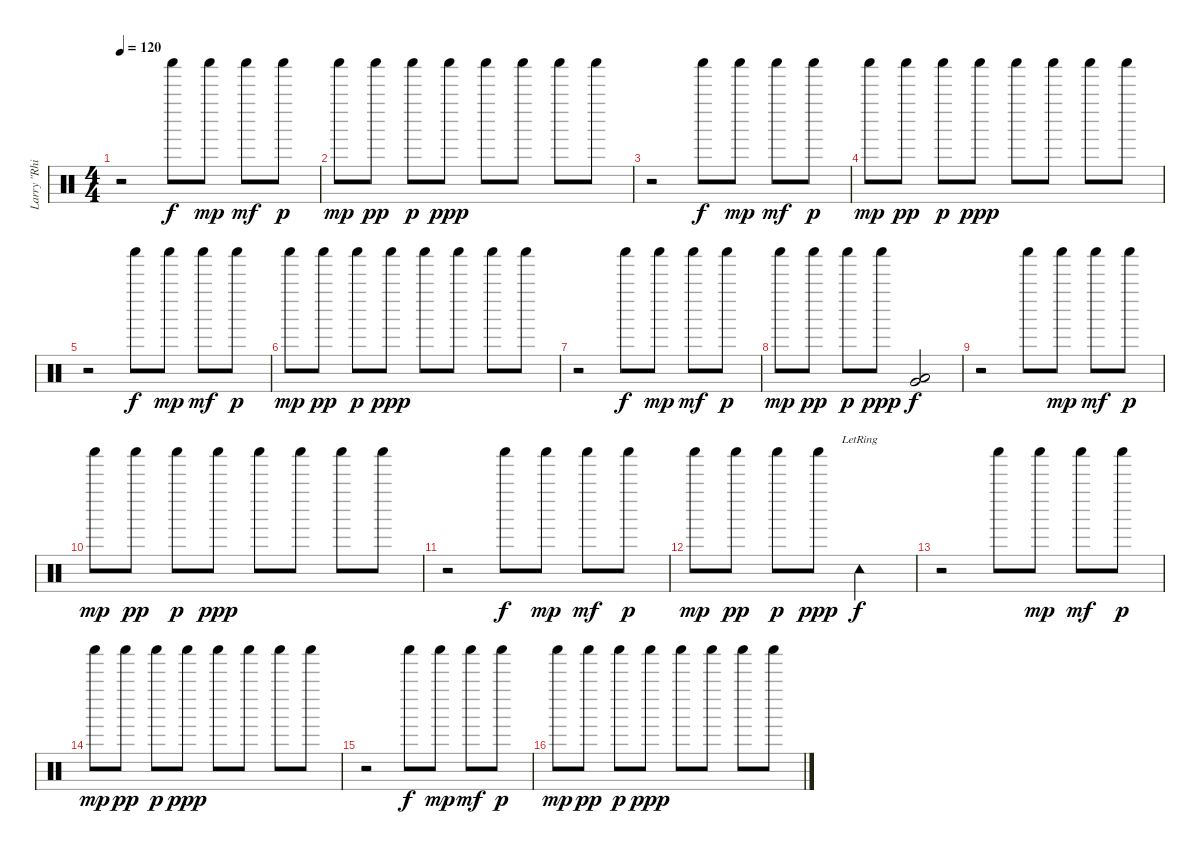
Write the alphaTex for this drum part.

\track ("Larry \"Rhino\" Rheinhart" "Larry \"Rhi") {instrument percussion}
\staff {score}
\articulation defaults
\ts (4 4)
\tempo 120
\clef neutral
\ks c
r.2{dy f} "Shaker (hit)".8{balance 0} "Shaker (hit)".8{dy mp balance 16} "Shaker (hit)".8{dy mf balance 0} "Shaker (hit)".8{dy p balance 16} |
"Shaker (hit)".8{dy mp balance 0} "Shaker (hit)".8{dy pp balance 16} "Shaker (hit)".8{dy p balance 0} "Shaker (hit)".8{dy ppp balance 16} "Shaker (hit)".8{balance 0} "Shaker (hit)".8{balance 0} "Shaker (hit)".8{balance 0} "Shaker (hit)".8 |
r.2 "Shaker (hit)".8{dy f balance 0} "Shaker (hit)".8{dy mp balance 16} "Shaker (hit)".8{dy mf balance 0} "Shaker (hit)".8{dy p balance 16} |
"Shaker (hit)".8{dy mp balance 0} "Shaker (hit)".8{dy pp balance 16} "Shaker (hit)".8{dy p balance 0} "Shaker (hit)".8{dy ppp balance 16} "Shaker (hit)".8{balance 0} "Shaker (hit)".8{balance 0} "Shaker (hit)".8{balance 0} "Shaker (hit)".8 |
r.2 "Shaker (hit)".8{dy f balance 0} "Shaker (hit)".8{dy mp balance 16} "Shaker (hit)".8{dy mf balance 0} "Shaker (hit)".8{dy p balance 16} |
"Shaker (hit)".8{dy mp balance 0} "Shaker (hit)".8{dy pp balance 16} "Shaker (hit)".8{dy p balance 0} "Shaker (hit)".8{dy ppp balance 16} "Shaker (hit)".8{balance 0} "Shaker (hit)".8{balance 0} "Shaker (hit)".8{balance 0} "Shaker (hit)".8 |
r.2 "Shaker (hit)".8{dy f balance 0} "Shaker (hit)".8{dy mp balance 16} "Shaker (hit)".8{dy mf balance 0} "Shaker (hit)".8{dy p balance 16} |
"Shaker (hit)".8{dy mp balance 0} "Shaker (hit)".8{dy pp balance 16} "Shaker (hit)".8{dy p balance 0} "Shaker (hit)".8{dy ppp balance 16} ("Very Low Tom (hit)" "Low Floor Tom (hit)").2{dy f balance 13} |
r.2 "Shaker (hit)".8{balance 0} "Shaker (hit)".8{dy mp balance 16} "Shaker (hit)".8{dy mf balance 0} "Shaker (hit)".8{dy p balance 16} |
"Shaker (hit)".8{dy mp balance 0} "Shaker (hit)".8{dy pp balance 16} "Shaker (hit)".8{dy p balance 0} "Shaker (hit)".8{dy ppp balance 16} "Shaker (hit)".8{balance 0} "Shaker (hit)".8{balance 0} "Shaker (hit)".8{balance 0} "Shaker (hit)".8 |
r.2 "Shaker (hit)".8{dy f balance 0} "Shaker (hit)".8{dy mp balance 16} "Shaker (hit)".8{dy mf balance 0} "Shaker (hit)".8{dy p balance 16} |
"Shaker (hit)".8{dy mp balance 0} "Shaker (hit)".8{dy pp balance 16} "Shaker (hit)".8{dy p balance 0} "Shaker (hit)".8{dy ppp balance 16} "Tambourine (hit)"{lr}.2{dy f balance 8} |
r.2 "Shaker (hit)".8{balance 0} "Shaker (hit)".8{dy mp balance 16} "Shaker (hit)".8{dy mf balance 0} "Shaker (hit)".8{dy p balance 16} |
"Shaker (hit)".8{dy mp balance 0} "Shaker (hit)".8{dy pp balance 16} "Shaker (hit)".8{dy p balance 0} "Shaker (hit)".8{dy ppp balance 16} "Shaker (hit)".8{balance 0} "Shaker (hit)".8{balance 0} "Shaker (hit)".8{balance 0} "Shaker (hit)".8 |
r.2 "Shaker (hit)".8{dy f balance 0} "Shaker (hit)".8{dy mp balance 16} "Shaker (hit)".8{dy mf balance 0} "Shaker (hit)".8{dy p balance 16} |
"Shaker (hit)".8{dy mp balance 0} "Shaker (hit)".8{dy pp balance 16} "Shaker (hit)".8{dy p balance 0} "Shaker (hit)".8{dy ppp balance 16} "Shaker (hit)".8{balance 0} "Shaker (hit)".8{balance 0} "Shaker (hit)".8{balance 0} "Shaker (hit)".8
